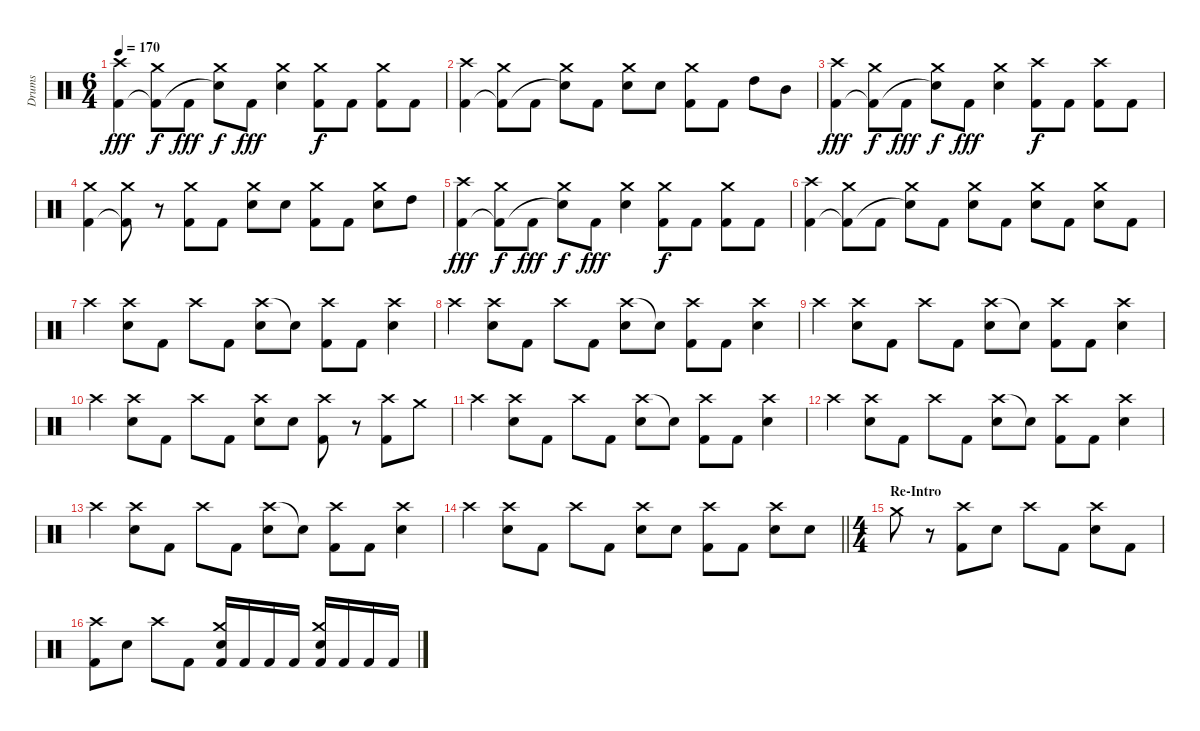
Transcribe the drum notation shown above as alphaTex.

\track ("Drums" "Drums") {instrument percussion}
\staff {score}
\articulation defaults
\ts (6 4)
\tempo 170
\clef neutral
\ks c
("Crash high (hit)" "Kick (hit) 2").4{dy fff} ("Crash medium (hit)" "Kick (hit) 2"{t}).8{dy f} "Kick (hit) 2".8{dy fff} ("Crash medium (hit)" "Snare (hit)"{t}).8{dy f} "Kick (hit) 2".8{dy fff} ("Crash medium (hit)" "Electric Snare (hit)").4 ("Crash medium (hit)" "Kick (hit) 2").8{dy f} "Kick (hit) 2".8 ("Crash medium (hit)" "Kick (hit) 2").8 "Kick (hit) 2".8 |
("Crash high (hit)" "Kick (hit) 2").4 ("Crash medium (hit)" "Kick (hit) 2"{t}).8 "Kick (hit) 2".8 ("Crash medium (hit)" "Snare (hit)"{t}).8 "Kick (hit) 2".8 ("Crash medium (hit)" "Electric Snare (hit)").8 "Electric Snare (hit)".8 ("Crash medium (hit)" "Kick (hit) 2").8 "Kick (hit) 2".8 "High Tom (hit)".8 "Mid Tom (hit)".8 |
("Crash high (hit)" "Kick (hit) 2").4{dy fff} ("Crash medium (hit)" "Kick (hit) 2"{t}).8{dy f} "Kick (hit) 2".8{dy fff} ("Crash medium (hit)" "Snare (hit)"{t}).8{dy f} "Kick (hit) 2".8{dy fff} ("Crash medium (hit)" "Electric Snare (hit)").4 ("Crash high (hit)" "Kick (hit) 2").8{dy f} "Kick (hit) 2".8 ("Crash high (hit)" "Kick (hit) 2").8 "Kick (hit) 2".8 |
("Crash medium (hit)" "Kick (hit) 2").4 ("Crash medium (hit)" "Kick (hit) 2"{t}).8 r.8 ("Crash medium (hit)" "Kick (hit) 2").8 "Kick (hit) 2".8 ("Crash medium (hit)" "Electric Snare (hit)").8 "Electric Snare (hit)".8 ("Crash medium (hit)" "Kick (hit) 2").8 "Kick (hit) 2".8 ("Crash medium (hit)" "Electric Snare (hit)").8 "High Tom (hit)".8 |
("Crash high (hit)" "Kick (hit) 2").4{dy fff} ("Crash medium (hit)" "Kick (hit) 2"{t}).8{dy f} "Kick (hit) 2".8{dy fff} ("Crash medium (hit)" "Snare (hit)"{t}).8{dy f} "Kick (hit) 2".8{dy fff} ("Crash medium (hit)" "Electric Snare (hit)").4 ("Crash medium (hit)" "Kick (hit) 2").8{dy f} "Kick (hit) 2".8 ("Crash medium (hit)" "Kick (hit) 2").8 "Kick (hit) 2".8 |
("Crash high (hit)" "Kick (hit) 2").4 ("Crash medium (hit)" "Kick (hit) 2"{t}).8 "Kick (hit) 2".8 ("Crash medium (hit)" "Snare (hit)"{t}).8 "Kick (hit) 2".8 ("Crash medium (hit)" "Electric Snare (hit)").8 "Kick (hit) 2".8 ("Crash medium (hit)" "Electric Snare (hit)").8 "Kick (hit) 2".8 ("Crash medium (hit)" "Electric Snare (hit)").8 "Kick (hit) 2".8 |
"Crash high (hit)".4 ("Crash high (hit)" "Electric Snare (hit)").8 "Kick (hit) 2".8 "Crash high (hit)".8 "Kick (hit) 2".8 ("Crash high (hit)" "Electric Snare (hit)").8 "Electric Snare (hit)"{t}.8 ("Crash high (hit)" "Kick (hit) 2").8 "Kick (hit) 2".8 ("Crash high (hit)" "Electric Snare (hit)").4 |
"Crash high (hit)".4 ("Crash high (hit)" "Electric Snare (hit)").8 "Kick (hit) 2".8 "Crash high (hit)".8 "Kick (hit) 2".8 ("Crash high (hit)" "Electric Snare (hit)").8 "Electric Snare (hit)"{t}.8 ("Crash high (hit)" "Kick (hit) 2").8 "Kick (hit) 2".8 ("Crash high (hit)" "Electric Snare (hit)").4 |
"Crash high (hit)".4 ("Crash high (hit)" "Electric Snare (hit)").8 "Kick (hit) 2".8 "Crash high (hit)".8 "Kick (hit) 2".8 ("Crash high (hit)" "Electric Snare (hit)").8 "Electric Snare (hit)"{t}.8 ("Crash high (hit)" "Kick (hit) 2").8 "Kick (hit) 2".8 ("Crash high (hit)" "Electric Snare (hit)").4 |
"Crash high (hit)".4 ("Crash high (hit)" "Electric Snare (hit)").8 "Kick (hit) 2".8 "Crash high (hit)".8 "Kick (hit) 2".8 ("Crash high (hit)" "Electric Snare (hit)").8 "Electric Snare (hit)".8 ("Crash high (hit)" "Kick (hit) 2").8 r.8 ("Crash high (hit)" "Kick (hit) 2").8 "Crash medium (hit)".8 |
"Crash high (hit)".4 ("Crash high (hit)" "Electric Snare (hit)").8 "Kick (hit) 2".8 "Crash high (hit)".8 "Kick (hit) 2".8 ("Crash high (hit)" "Electric Snare (hit)").8 "Electric Snare (hit)"{t}.8 ("Crash high (hit)" "Kick (hit) 2").8 "Kick (hit) 2".8 ("Crash high (hit)" "Electric Snare (hit)").4 |
"Crash high (hit)".4 ("Crash high (hit)" "Electric Snare (hit)").8 "Kick (hit) 2".8 "Crash high (hit)".8 "Kick (hit) 2".8 ("Crash high (hit)" "Electric Snare (hit)").8 "Electric Snare (hit)"{t}.8 ("Crash high (hit)" "Kick (hit) 2").8 "Kick (hit) 2".8 ("Crash high (hit)" "Electric Snare (hit)").4 |
"Crash high (hit)".4 ("Crash high (hit)" "Electric Snare (hit)").8 "Kick (hit) 2".8 "Crash high (hit)".8 "Kick (hit) 2".8 ("Crash high (hit)" "Electric Snare (hit)").8 "Electric Snare (hit)"{t}.8 ("Crash high (hit)" "Kick (hit) 2").8 "Kick (hit) 2".8 ("Crash high (hit)" "Electric Snare (hit)").4 |
\barLineRight lightlight "Crash high (hit)".4
("Crash high (hit)" "Electric Snare (hit)").8 "Kick (hit) 2".8 "Crash high (hit)".8 "Kick (hit) 2".8 ("Crash high (hit)" "Electric Snare (hit)").8 "Electric Snare (hit)".8 ("Crash high (hit)" "Kick (hit) 2").8 "Kick (hit) 2".8 ("Crash high (hit)" "Electric Snare (hit)").8 "Electric Snare (hit)".8 |
\ts (4 4)
\section ("" "Re-Intro")
"Crash medium (hit)".8 r.8 ("Crash high (hit)" "Kick (hit) 2").8 "Electric Snare (hit)".8 "Crash high (hit)".8 "Kick (hit) 2".8 ("Crash high (hit)" "Electric Snare (hit)").8 "Kick (hit) 2".8 |
("Crash high (hit)" "Kick (hit) 2").8 "Electric Snare (hit)".8 "Crash high (hit)".8 "Kick (hit) 2".8 ("Crash medium (hit)" "Electric Snare (hit)" "Kick (hit) 2").16 "Kick (hit) 2".16 "Kick (hit) 2".16 "Kick (hit) 2".16 ("Crash medium (hit)" "Electric Snare (hit)" "Kick (hit) 2").16 "Kick (hit) 2".16 "Kick (hit) 2".16 "Kick (hit) 2".16
